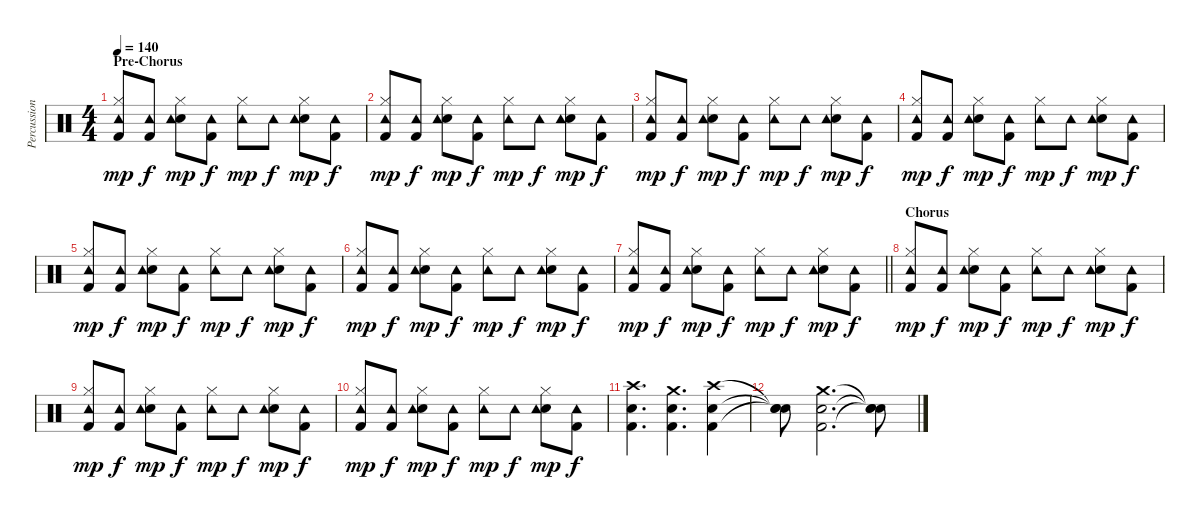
\track ("Percussion" "Percussion") {instrument percussion}
\staff {score}
\articulation defaults
\ts (4 4)
\section ("" "Pre-Chorus")
\tempo 140
\clef neutral
\ks c
("Kick (hit) 2" "Hi-Hat (closed)" "Tambourine (hit)").8{dy mp} ("Kick (hit) 2" "Tambourine (hit)").8{dy f} ("Snare (hit) 2" "Hi-Hat (closed)" "Tambourine (hit)").8{dy mp} ("Kick (hit) 2" "Tambourine (hit)").8{dy f} ("Hi-Hat (closed)" "Tambourine (hit)").8{dy mp} "Tambourine (hit)".8{dy f} ("Snare (hit) 2" "Hi-Hat (closed)" "Tambourine (hit)").8{dy mp} ("Kick (hit) 2" "Tambourine (hit)").8{dy f} |
("Kick (hit) 2" "Hi-Hat (closed)" "Tambourine (hit)").8{dy mp} ("Kick (hit) 2" "Tambourine (hit)").8{dy f} ("Snare (hit) 2" "Hi-Hat (closed)" "Tambourine (hit)").8{dy mp} ("Kick (hit) 2" "Tambourine (hit)").8{dy f} ("Hi-Hat (closed)" "Tambourine (hit)").8{dy mp} "Tambourine (hit)".8{dy f} ("Snare (hit) 2" "Hi-Hat (closed)" "Tambourine (hit)").8{dy mp} ("Kick (hit) 2" "Tambourine (hit)").8{dy f} |
("Kick (hit) 2" "Hi-Hat (closed)" "Tambourine (hit)").8{dy mp} ("Kick (hit) 2" "Tambourine (hit)").8{dy f} ("Snare (hit) 2" "Hi-Hat (closed)" "Tambourine (hit)").8{dy mp} ("Kick (hit) 2" "Tambourine (hit)").8{dy f} ("Hi-Hat (closed)" "Tambourine (hit)").8{dy mp} "Tambourine (hit)".8{dy f} ("Snare (hit) 2" "Hi-Hat (closed)" "Tambourine (hit)").8{dy mp} ("Kick (hit) 2" "Tambourine (hit)").8{dy f} |
("Kick (hit) 2" "Hi-Hat (closed)" "Tambourine (hit)").8{dy mp} ("Kick (hit) 2" "Tambourine (hit)").8{dy f} ("Snare (hit) 2" "Hi-Hat (closed)" "Tambourine (hit)").8{dy mp} ("Kick (hit) 2" "Tambourine (hit)").8{dy f} ("Hi-Hat (closed)" "Tambourine (hit)").8{dy mp} "Tambourine (hit)".8{dy f} ("Snare (hit) 2" "Hi-Hat (closed)" "Tambourine (hit)").8{dy mp} ("Kick (hit) 2" "Tambourine (hit)").8{dy f} |
("Kick (hit) 2" "Hi-Hat (closed)" "Tambourine (hit)").8{dy mp} ("Kick (hit) 2" "Tambourine (hit)").8{dy f} ("Snare (hit) 2" "Hi-Hat (closed)" "Tambourine (hit)").8{dy mp} ("Kick (hit) 2" "Tambourine (hit)").8{dy f} ("Hi-Hat (closed)" "Tambourine (hit)").8{dy mp} "Tambourine (hit)".8{dy f} ("Snare (hit) 2" "Hi-Hat (closed)" "Tambourine (hit)").8{dy mp} ("Kick (hit) 2" "Tambourine (hit)").8{dy f} |
("Kick (hit) 2" "Hi-Hat (closed)" "Tambourine (hit)").8{dy mp} ("Kick (hit) 2" "Tambourine (hit)").8{dy f} ("Snare (hit) 2" "Hi-Hat (closed)" "Tambourine (hit)").8{dy mp} ("Kick (hit) 2" "Tambourine (hit)").8{dy f} ("Hi-Hat (closed)" "Tambourine (hit)").8{dy mp} "Tambourine (hit)".8{dy f} ("Snare (hit) 2" "Hi-Hat (closed)" "Tambourine (hit)").8{dy mp} ("Kick (hit) 2" "Tambourine (hit)").8{dy f} |
\barLineRight lightlight
("Kick (hit) 2" "Hi-Hat (closed)" "Tambourine (hit)").8{dy mp} ("Kick (hit) 2" "Tambourine (hit)").8{dy f} ("Snare (hit) 2" "Hi-Hat (closed)" "Tambourine (hit)").8{dy mp} ("Kick (hit) 2" "Tambourine (hit)").8{dy f} ("Hi-Hat (closed)" "Tambourine (hit)").8{dy mp} "Tambourine (hit)".8{dy f} ("Snare (hit) 2" "Hi-Hat (closed)" "Tambourine (hit)").8{dy mp} ("Kick (hit) 2" "Tambourine (hit)").8{dy f} |
\section ("" "Chorus")
("Kick (hit) 2" "Hi-Hat (closed)" "Tambourine (hit)").8{dy mp} ("Kick (hit) 2" "Tambourine (hit)").8{dy f} ("Snare (hit) 2" "Hi-Hat (closed)" "Tambourine (hit)").8{dy mp} ("Kick (hit) 2" "Tambourine (hit)").8{dy f} ("Hi-Hat (closed)" "Tambourine (hit)").8{dy mp} "Tambourine (hit)".8{dy f} ("Snare (hit) 2" "Hi-Hat (closed)" "Tambourine (hit)").8{dy mp} ("Kick (hit) 2" "Tambourine (hit)").8{dy f} |
("Kick (hit) 2" "Hi-Hat (closed)" "Tambourine (hit)").8{dy mp} ("Kick (hit) 2" "Tambourine (hit)").8{dy f} ("Snare (hit) 2" "Hi-Hat (closed)" "Tambourine (hit)").8{dy mp} ("Kick (hit) 2" "Tambourine (hit)").8{dy f} ("Hi-Hat (closed)" "Tambourine (hit)").8{dy mp} "Tambourine (hit)".8{dy f} ("Snare (hit) 2" "Hi-Hat (closed)" "Tambourine (hit)").8{dy mp} ("Kick (hit) 2" "Tambourine (hit)").8{dy f} |
("Kick (hit) 2" "Hi-Hat (closed)" "Tambourine (hit)").8{dy mp} ("Kick (hit) 2" "Tambourine (hit)").8{dy f} ("Snare (hit) 2" "Hi-Hat (closed)" "Tambourine (hit)").8{dy mp} ("Kick (hit) 2" "Tambourine (hit)").8{dy f} ("Hi-Hat (closed)" "Tambourine (hit)").8{dy mp} "Tambourine (hit)".8{dy f} ("Snare (hit) 2" "Hi-Hat (closed)" "Tambourine (hit)").8{dy mp} ("Kick (hit) 2" "Tambourine (hit)").8{dy f} |
("Kick (hit) 2" "Snare (hit) 2" "Crash high (hit)").4{d} ("Kick (hit) 2" "Snare (hit) 2" "Crash medium (hit)").4{d} ("Kick (hit) 2" "Snare (hit) 2" "Crash high (hit)").4 |
("Snare (hit)"{t} "Snare (hit)"{t} "Snare (hit)"{t}).8 ("Kick (hit) 2" "Snare (hit) 2" "Crash medium (hit)").2{d} ("Snare (hit)"{t} "Snare (hit)"{t} "Snare (hit)"{t}).8
